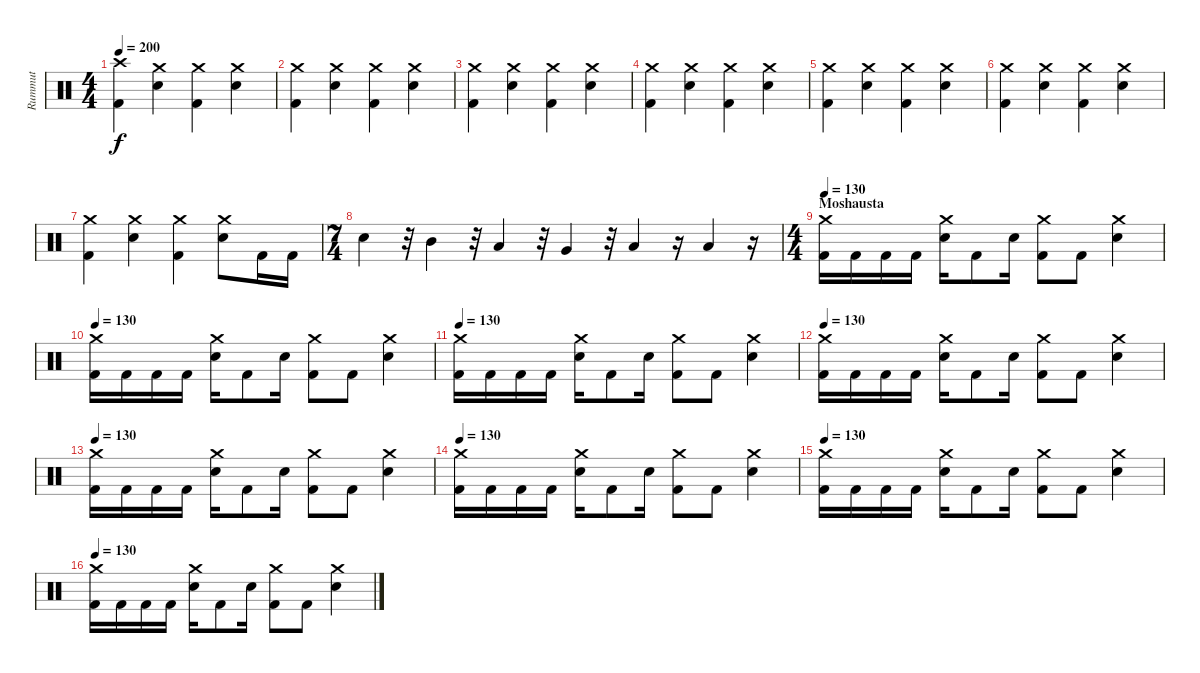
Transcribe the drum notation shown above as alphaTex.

\track ("Rummut" "Rummut") {instrument percussion}
\staff {score}
\articulation defaults
\ts (4 4)
\tempo 200
\clef neutral
\ks c
("Crash high (hit)" "Kick (hit) 2").4{dy f} ("Crash medium (hit)" "Electric Snare (hit)").4 ("Crash medium (hit)" "Kick (hit) 2").4 ("Crash medium (hit)" "Electric Snare (hit)").4 |
("Crash medium (hit)" "Kick (hit) 2").4 ("Crash medium (hit)" "Electric Snare (hit)").4 ("Crash medium (hit)" "Kick (hit) 2").4 ("Crash medium (hit)" "Electric Snare (hit)").4 |
("Crash medium (hit)" "Kick (hit) 2").4 ("Crash medium (hit)" "Electric Snare (hit)").4 ("Crash medium (hit)" "Kick (hit) 2").4 ("Crash medium (hit)" "Electric Snare (hit)").4 |
("Crash medium (hit)" "Kick (hit) 2").4 ("Crash medium (hit)" "Electric Snare (hit)").4 ("Crash medium (hit)" "Kick (hit) 2").4 ("Crash medium (hit)" "Electric Snare (hit)").4 |
("Crash medium (hit)" "Kick (hit) 2").4 ("Crash medium (hit)" "Electric Snare (hit)").4 ("Crash medium (hit)" "Kick (hit) 2").4 ("Crash medium (hit)" "Electric Snare (hit)").4 |
("Crash medium (hit)" "Kick (hit) 2").4 ("Crash medium (hit)" "Electric Snare (hit)").4 ("Crash medium (hit)" "Kick (hit) 2").4 ("Crash medium (hit)" "Electric Snare (hit)").4 |
("Crash medium (hit)" "Kick (hit) 2").4 ("Crash medium (hit)" "Electric Snare (hit)").4 ("Crash medium (hit)" "Kick (hit) 2").4 ("Crash medium (hit)" "Electric Snare (hit)").8 "Kick (hit) 2".16 "Kick (hit) 2".16 |
\ts (7 4)
"Electric Snare (hit)".4 r.32 "Mid Tom (hit)".4 r.32 "Low Tom (hit)".4 r.32 "Very Low Tom (hit)".4 r.32 "Low Floor Tom (hit)".4 r.16 "Low Floor Tom (hit)".4 r.16 |
\ts (4 4)
\section ("" "Moshausta")
\tempo 130
("Crash medium (hit)" "Kick (hit) 2").16 "Kick (hit) 2".16 "Kick (hit) 2".16 "Kick (hit) 2".16 ("Crash medium (hit)" "Electric Snare (hit)").16 "Kick (hit) 2".8 "Electric Snare (hit)".16 ("Crash medium (hit)" "Kick (hit) 2").8 "Kick (hit) 2".8 ("Crash medium (hit)" "Electric Snare (hit)").4 |
\tempo 130
("Crash medium (hit)" "Kick (hit) 2").16 "Kick (hit) 2".16 "Kick (hit) 2".16 "Kick (hit) 2".16 ("Crash medium (hit)" "Electric Snare (hit)").16 "Kick (hit) 2".8 "Electric Snare (hit)".16 ("Crash medium (hit)" "Kick (hit) 2").8 "Kick (hit) 2".8 ("Crash medium (hit)" "Electric Snare (hit)").4 |
\tempo 130
("Crash medium (hit)" "Kick (hit) 2").16 "Kick (hit) 2".16 "Kick (hit) 2".16 "Kick (hit) 2".16 ("Crash medium (hit)" "Electric Snare (hit)").16 "Kick (hit) 2".8 "Electric Snare (hit)".16 ("Crash medium (hit)" "Kick (hit) 2").8 "Kick (hit) 2".8 ("Crash medium (hit)" "Electric Snare (hit)").4 |
\tempo 130
("Crash medium (hit)" "Kick (hit) 2").16 "Kick (hit) 2".16 "Kick (hit) 2".16 "Kick (hit) 2".16 ("Crash medium (hit)" "Electric Snare (hit)").16 "Kick (hit) 2".8 "Electric Snare (hit)".16 ("Crash medium (hit)" "Kick (hit) 2").8 "Kick (hit) 2".8 ("Crash medium (hit)" "Electric Snare (hit)").4 |
\tempo 130
("Crash medium (hit)" "Kick (hit) 2").16 "Kick (hit) 2".16 "Kick (hit) 2".16 "Kick (hit) 2".16 ("Crash medium (hit)" "Electric Snare (hit)").16 "Kick (hit) 2".8 "Electric Snare (hit)".16 ("Crash medium (hit)" "Kick (hit) 2").8 "Kick (hit) 2".8 ("Crash medium (hit)" "Electric Snare (hit)").4 |
\tempo 130
("Crash medium (hit)" "Kick (hit) 2").16 "Kick (hit) 2".16 "Kick (hit) 2".16 "Kick (hit) 2".16 ("Crash medium (hit)" "Electric Snare (hit)").16 "Kick (hit) 2".8 "Electric Snare (hit)".16 ("Crash medium (hit)" "Kick (hit) 2").8 "Kick (hit) 2".8 ("Crash medium (hit)" "Electric Snare (hit)").4 |
\tempo 130
("Crash medium (hit)" "Kick (hit) 2").16 "Kick (hit) 2".16 "Kick (hit) 2".16 "Kick (hit) 2".16 ("Crash medium (hit)" "Electric Snare (hit)").16 "Kick (hit) 2".8 "Electric Snare (hit)".16 ("Crash medium (hit)" "Kick (hit) 2").8 "Kick (hit) 2".8 ("Crash medium (hit)" "Electric Snare (hit)").4 |
\tempo 130
("Crash medium (hit)" "Kick (hit) 2").16 "Kick (hit) 2".16 "Kick (hit) 2".16 "Kick (hit) 2".16 ("Crash medium (hit)" "Electric Snare (hit)").16 "Kick (hit) 2".8 "Electric Snare (hit)".16 ("Crash medium (hit)" "Kick (hit) 2").8 "Kick (hit) 2".8 ("Crash medium (hit)" "Electric Snare (hit)").4
